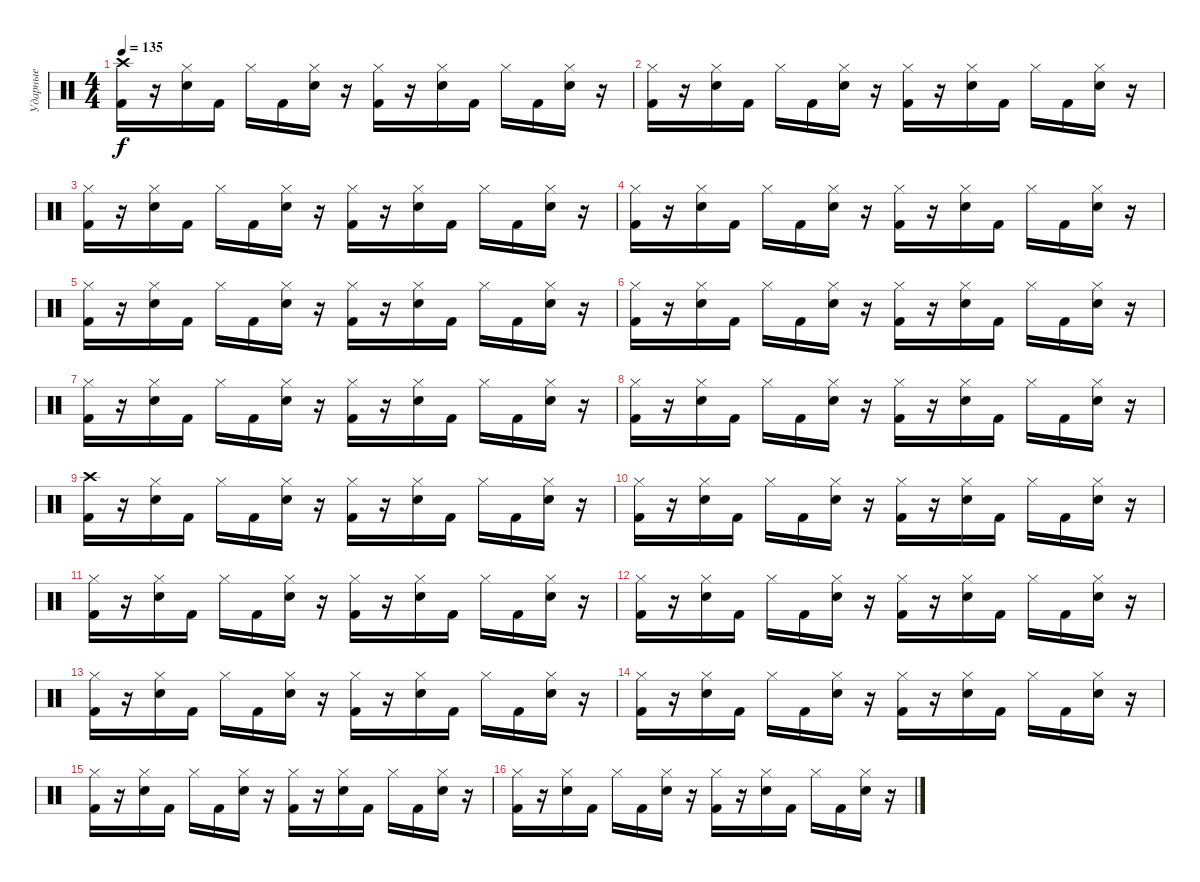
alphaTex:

\track ("Ударные" "Ударные") {instrument percussion}
\staff {score}
\articulation defaults
\ts (4 4)
\tempo 135
\clef neutral
\ks c
("Kick (hit) 2" "Crash high (hit)").16{dy f} r.16 ("Hi-Hat (closed)" "Electric Snare (hit)").16 "Kick (hit) 2".16 "Hi-Hat (closed)".16 "Kick (hit) 2".16 ("Hi-Hat (closed)" "Electric Snare (hit)").16 r.16 ("Hi-Hat (closed)" "Kick (hit) 2").16 r.16 ("Hi-Hat (closed)" "Electric Snare (hit)").16 "Kick (hit) 2".16 "Hi-Hat (closed)".16 "Kick (hit) 2".16 ("Hi-Hat (closed)" "Electric Snare (hit)").16 r.16 |
("Hi-Hat (closed)" "Kick (hit) 2").16 r.16 ("Hi-Hat (closed)" "Electric Snare (hit)").16 "Kick (hit) 2".16 "Hi-Hat (closed)".16 "Kick (hit) 2".16 ("Hi-Hat (closed)" "Electric Snare (hit)").16 r.16 ("Hi-Hat (closed)" "Kick (hit) 2").16 r.16 ("Hi-Hat (closed)" "Electric Snare (hit)").16 "Kick (hit) 2".16 "Hi-Hat (closed)".16 "Kick (hit) 2".16 ("Hi-Hat (closed)" "Electric Snare (hit)").16 r.16 |
("Hi-Hat (closed)" "Kick (hit) 2").16 r.16 ("Hi-Hat (closed)" "Electric Snare (hit)").16 "Kick (hit) 2".16 "Hi-Hat (closed)".16 "Kick (hit) 2".16 ("Hi-Hat (closed)" "Electric Snare (hit)").16 r.16 ("Hi-Hat (closed)" "Kick (hit) 2").16 r.16 ("Hi-Hat (closed)" "Electric Snare (hit)").16 "Kick (hit) 2".16 "Hi-Hat (closed)".16 "Kick (hit) 2".16 ("Hi-Hat (closed)" "Electric Snare (hit)").16 r.16 |
("Hi-Hat (closed)" "Kick (hit) 2").16 r.16 ("Hi-Hat (closed)" "Electric Snare (hit)").16 "Kick (hit) 2".16 "Hi-Hat (closed)".16 "Kick (hit) 2".16 ("Hi-Hat (closed)" "Electric Snare (hit)").16 r.16 ("Hi-Hat (closed)" "Kick (hit) 2").16 r.16 ("Hi-Hat (closed)" "Electric Snare (hit)").16 "Kick (hit) 2".16 "Hi-Hat (closed)".16 "Kick (hit) 2".16 ("Hi-Hat (closed)" "Electric Snare (hit)").16 r.16 |
("Hi-Hat (closed)" "Kick (hit) 2").16 r.16 ("Hi-Hat (closed)" "Electric Snare (hit)").16 "Kick (hit) 2".16 "Hi-Hat (closed)".16 "Kick (hit) 2".16 ("Hi-Hat (closed)" "Electric Snare (hit)").16 r.16 ("Hi-Hat (closed)" "Kick (hit) 2").16 r.16 ("Hi-Hat (closed)" "Electric Snare (hit)").16 "Kick (hit) 2".16 "Hi-Hat (closed)".16 "Kick (hit) 2".16 ("Hi-Hat (closed)" "Electric Snare (hit)").16 r.16 |
("Hi-Hat (closed)" "Kick (hit) 2").16 r.16 ("Hi-Hat (closed)" "Electric Snare (hit)").16 "Kick (hit) 2".16 "Hi-Hat (closed)".16 "Kick (hit) 2".16 ("Hi-Hat (closed)" "Electric Snare (hit)").16 r.16 ("Hi-Hat (closed)" "Kick (hit) 2").16 r.16 ("Hi-Hat (closed)" "Electric Snare (hit)").16 "Kick (hit) 2".16 "Hi-Hat (closed)".16 "Kick (hit) 2".16 ("Hi-Hat (closed)" "Electric Snare (hit)").16 r.16 |
("Hi-Hat (closed)" "Kick (hit) 2").16 r.16 ("Hi-Hat (closed)" "Electric Snare (hit)").16 "Kick (hit) 2".16 "Hi-Hat (closed)".16 "Kick (hit) 2".16 ("Hi-Hat (closed)" "Electric Snare (hit)").16 r.16 ("Hi-Hat (closed)" "Kick (hit) 2").16 r.16 ("Hi-Hat (closed)" "Electric Snare (hit)").16 "Kick (hit) 2".16 "Hi-Hat (closed)".16 "Kick (hit) 2".16 ("Hi-Hat (closed)" "Electric Snare (hit)").16 r.16 |
("Hi-Hat (closed)" "Kick (hit) 2").16 r.16 ("Hi-Hat (closed)" "Electric Snare (hit)").16 "Kick (hit) 2".16 "Hi-Hat (closed)".16 "Kick (hit) 2".16 ("Hi-Hat (closed)" "Electric Snare (hit)").16 r.16 ("Hi-Hat (closed)" "Kick (hit) 2").16 r.16 ("Hi-Hat (closed)" "Electric Snare (hit)").16 "Kick (hit) 2".16 "Hi-Hat (closed)".16 "Kick (hit) 2".16 ("Hi-Hat (closed)" "Electric Snare (hit)").16 r.16 |
("Kick (hit) 2" "Crash high (hit)").16 r.16 ("Hi-Hat (closed)" "Electric Snare (hit)").16 "Kick (hit) 2".16 "Hi-Hat (closed)".16 "Kick (hit) 2".16 ("Hi-Hat (closed)" "Electric Snare (hit)").16 r.16 ("Hi-Hat (closed)" "Kick (hit) 2").16 r.16 ("Hi-Hat (closed)" "Electric Snare (hit)").16 "Kick (hit) 2".16 "Hi-Hat (closed)".16 "Kick (hit) 2".16 ("Hi-Hat (closed)" "Electric Snare (hit)").16 r.16 |
("Hi-Hat (closed)" "Kick (hit) 2").16 r.16 ("Hi-Hat (closed)" "Electric Snare (hit)").16 "Kick (hit) 2".16 "Hi-Hat (closed)".16 "Kick (hit) 2".16 ("Hi-Hat (closed)" "Electric Snare (hit)").16 r.16 ("Hi-Hat (closed)" "Kick (hit) 2").16 r.16 ("Hi-Hat (closed)" "Electric Snare (hit)").16 "Kick (hit) 2".16 "Hi-Hat (closed)".16 "Kick (hit) 2".16 ("Hi-Hat (closed)" "Electric Snare (hit)").16 r.16 |
("Hi-Hat (closed)" "Kick (hit) 2").16 r.16 ("Hi-Hat (closed)" "Electric Snare (hit)").16 "Kick (hit) 2".16 "Hi-Hat (closed)".16 "Kick (hit) 2".16 ("Hi-Hat (closed)" "Electric Snare (hit)").16 r.16 ("Hi-Hat (closed)" "Kick (hit) 2").16 r.16 ("Hi-Hat (closed)" "Electric Snare (hit)").16 "Kick (hit) 2".16 "Hi-Hat (closed)".16 "Kick (hit) 2".16 ("Hi-Hat (closed)" "Electric Snare (hit)").16 r.16 |
("Hi-Hat (closed)" "Kick (hit) 2").16 r.16 ("Hi-Hat (closed)" "Electric Snare (hit)").16 "Kick (hit) 2".16 "Hi-Hat (closed)".16 "Kick (hit) 2".16 ("Hi-Hat (closed)" "Electric Snare (hit)").16 r.16 ("Hi-Hat (closed)" "Kick (hit) 2").16 r.16 ("Hi-Hat (closed)" "Electric Snare (hit)").16 "Kick (hit) 2".16 "Hi-Hat (closed)".16 "Kick (hit) 2".16 ("Hi-Hat (closed)" "Electric Snare (hit)").16 r.16 |
("Hi-Hat (closed)" "Kick (hit) 2").16 r.16 ("Hi-Hat (closed)" "Electric Snare (hit)").16 "Kick (hit) 2".16 "Hi-Hat (closed)".16 "Kick (hit) 2".16 ("Hi-Hat (closed)" "Electric Snare (hit)").16 r.16 ("Hi-Hat (closed)" "Kick (hit) 2").16 r.16 ("Hi-Hat (closed)" "Electric Snare (hit)").16 "Kick (hit) 2".16 "Hi-Hat (closed)".16 "Kick (hit) 2".16 ("Hi-Hat (closed)" "Electric Snare (hit)").16 r.16 |
("Hi-Hat (closed)" "Kick (hit) 2").16 r.16 ("Hi-Hat (closed)" "Electric Snare (hit)").16 "Kick (hit) 2".16 "Hi-Hat (closed)".16 "Kick (hit) 2".16 ("Hi-Hat (closed)" "Electric Snare (hit)").16 r.16 ("Hi-Hat (closed)" "Kick (hit) 2").16 r.16 ("Hi-Hat (closed)" "Electric Snare (hit)").16 "Kick (hit) 2".16 "Hi-Hat (closed)".16 "Kick (hit) 2".16 ("Hi-Hat (closed)" "Electric Snare (hit)").16 r.16 |
("Hi-Hat (closed)" "Kick (hit) 2").16 r.16 ("Hi-Hat (closed)" "Electric Snare (hit)").16 "Kick (hit) 2".16 "Hi-Hat (closed)".16 "Kick (hit) 2".16 ("Hi-Hat (closed)" "Electric Snare (hit)").16 r.16 ("Hi-Hat (closed)" "Kick (hit) 2").16 r.16 ("Hi-Hat (closed)" "Electric Snare (hit)").16 "Kick (hit) 2".16 "Hi-Hat (closed)".16 "Kick (hit) 2".16 ("Hi-Hat (closed)" "Electric Snare (hit)").16 r.16 |
("Hi-Hat (closed)" "Kick (hit) 2").16 r.16 ("Hi-Hat (closed)" "Electric Snare (hit)").16 "Kick (hit) 2".16 "Hi-Hat (closed)".16 "Kick (hit) 2".16 ("Hi-Hat (closed)" "Electric Snare (hit)").16 r.16 ("Hi-Hat (closed)" "Kick (hit) 2").16 r.16 ("Hi-Hat (closed)" "Electric Snare (hit)").16 "Kick (hit) 2".16 "Hi-Hat (closed)".16 "Kick (hit) 2".16 ("Hi-Hat (closed)" "Electric Snare (hit)").16 r.16
